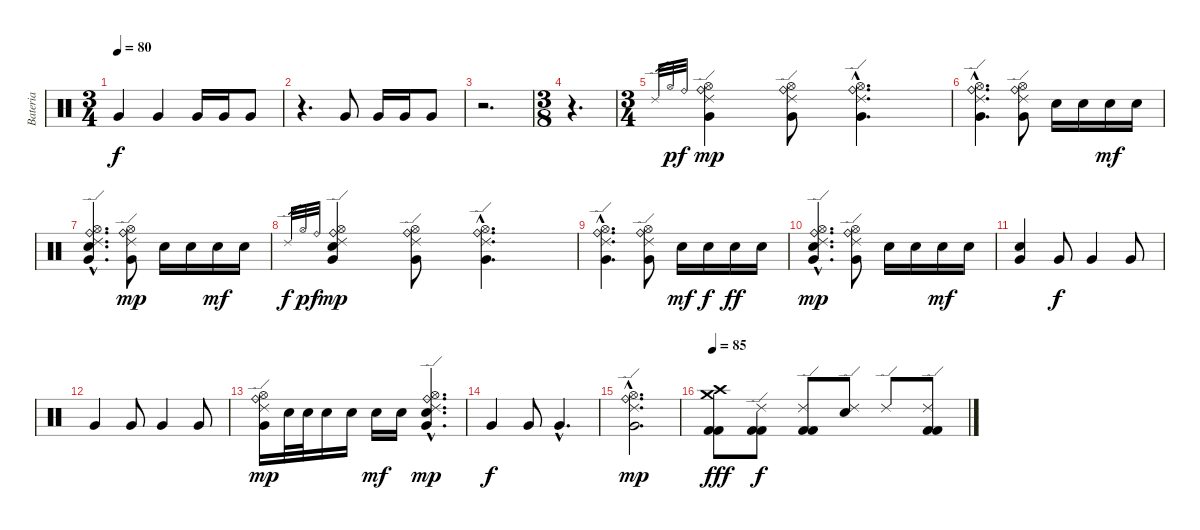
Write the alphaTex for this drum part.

\track ("Bateria" "Bateria") {instrument percussion}
\staff {score}
\articulation defaults
\ts (3 4)
\tempo 80
\clef neutral
\ks c "Very Low Tom (hit)".4{dy f} "Very Low Tom (hit)".4 "Very Low Tom (hit)".16 "Very Low Tom (hit)".16 "Very Low Tom (hit)".8
|
r.4{d} "Very Low Tom (hit)".8 "Very Low Tom (hit)".16 "Very Low Tom (hit)".16 "Very Low Tom (hit)".8 |
r.2{d} |
\ts (3 8)
r.4{d} |
\ts (3 4)
"Ride (edge) 2".32{gr} "Hi-Hat (open)".32{gr dy p} "Ride (bell)".32{gr dy f} ("Ride (edge) 2" "Hi-Hat (open)" "Ride (bell)" "Very Low Tom (hit)").4{dy mp} ("Ride (edge) 2" "Hi-Hat (open)" "Ride (bell)" "Very Low Tom (hit)").8 ("Ride (edge) 2"{hac} "Hi-Hat (open)"{hac} "Ride (bell)"{hac} "Very Low Tom (hit)"{hac}).4{d} |
("Ride (edge) 2"{hac} "Hi-Hat (open)"{hac} "Ride (bell)"{hac} "Very Low Tom (hit)"{hac}).4{d} ("Ride (edge) 2" "Hi-Hat (open)" "Ride (bell)" "Very Low Tom (hit)").8 "Electric Snare (hit)".16 "Electric Snare (hit)".16 "Electric Snare (hit)".16{dy mf} "Electric Snare (hit)".16 |
("Ride (edge) 2"{hac} "Hi-Hat (open)"{hac} "Ride (bell)"{hac} "Very Low Tom (hit)"{hac} "Electric Snare (hit)"{hac}).4{d} ("Ride (edge) 2" "Hi-Hat (open)" "Ride (bell)" "Very Low Tom (hit)").8{dy mp} "Electric Snare (hit)".16 "Electric Snare (hit)".16 "Electric Snare (hit)".16{dy mf} "Electric Snare (hit)".16 |
"Ride (edge) 2".32{gr dy f} "Hi-Hat (open)".32{gr dy p} "Ride (bell)".32{gr dy f} ("Ride (edge) 2" "Hi-Hat (open)" "Ride (bell)" "Very Low Tom (hit)" "Electric Snare (hit)").4{dy mp} ("Ride (edge) 2" "Hi-Hat (open)" "Ride (bell)" "Very Low Tom (hit)").8 ("Ride (edge) 2"{hac} "Hi-Hat (open)"{hac} "Ride (bell)"{hac} "Very Low Tom (hit)"{hac}).4{d} |
("Ride (edge) 2"{hac} "Hi-Hat (open)"{hac} "Ride (bell)"{hac} "Very Low Tom (hit)"{hac}).4{d} ("Ride (edge) 2" "Hi-Hat (open)" "Ride (bell)" "Very Low Tom (hit)").8 "Electric Snare (hit)".16{dy mf} "Electric Snare (hit)".16{dy f} "Electric Snare (hit)".16{dy ff} "Electric Snare (hit)".16 |
("Ride (edge) 2"{hac} "Hi-Hat (open)"{hac} "Ride (bell)"{hac} "Very Low Tom (hit)"{hac} "Electric Snare (hit)"{hac}).4{d dy mp} ("Ride (edge) 2" "Hi-Hat (open)" "Ride (bell)" "Very Low Tom (hit)").8 "Electric Snare (hit)".16 "Electric Snare (hit)".16 "Electric Snare (hit)".16{dy mf} "Electric Snare (hit)".16 |
("Very Low Tom (hit)" "Electric Snare (hit)").4 "Very Low Tom (hit)".8{dy f} "Very Low Tom (hit)".4 "Very Low Tom (hit)".8 |
"Very Low Tom (hit)".4 "Very Low Tom (hit)".8 "Very Low Tom (hit)".4 "Very Low Tom (hit)".8 |
("Ride (edge) 2" "Hi-Hat (open)" "Ride (bell)" "Very Low Tom (hit)").16{dy mp} "Electric Snare (hit)".32 "Electric Snare (hit)".32 "Electric Snare (hit)".16 "Electric Snare (hit)".16 "Electric Snare (hit)".16{dy mf} "Electric Snare (hit)".16 ("Ride (edge) 2"{hac} "Hi-Hat (open)"{hac} "Ride (bell)"{hac} "Very Low Tom (hit)"{hac} "Electric Snare (hit)"{hac}).4{d dy mp} |
"Very Low Tom (hit)".4{dy f} "Very Low Tom (hit)".8 "Very Low Tom (hit)"{hac}.4{d} |
("Ride (edge) 2"{hac} "Hi-Hat (open)"{hac} "Ride (bell)"{hac} "Very Low Tom (hit)"{hac}).2{d dy mp} |
\tempo 85
("Crash high (hit)" "Crash medium (hit)" "Kick (hit) 2" "Kick (hit) 2").8{dy fff volume 16} ("Ride (edge) 2" "Kick (hit) 2" "Kick (hit) 2").8{dy f} ("Ride (edge) 2" "Kick (hit) 2" "Kick (hit) 2").8 ("Ride (edge) 2" "Electric Snare (hit)").8 "Ride (edge) 2".8 ("Ride (edge) 2" "Kick (hit) 2" "Kick (hit) 2").8
